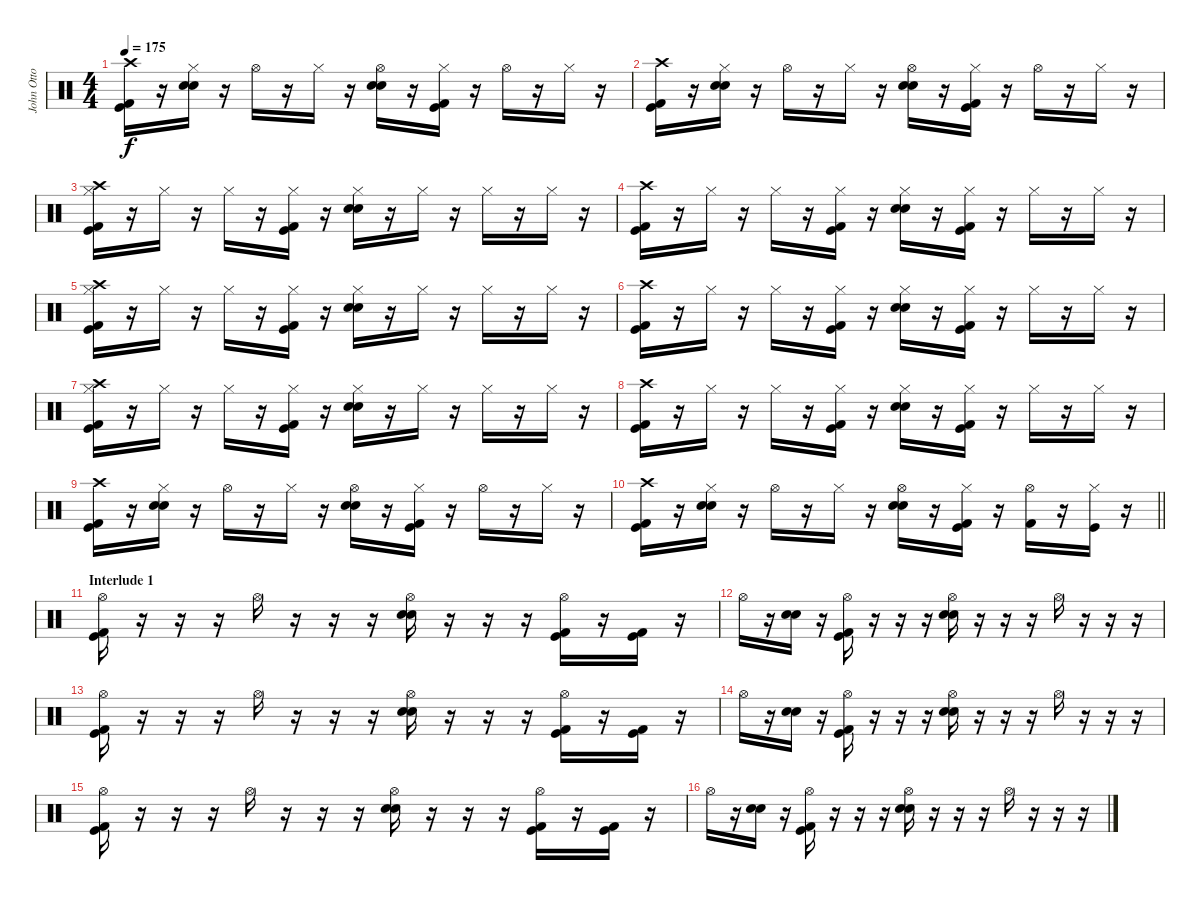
\track ("John Otto" "John Otto") {instrument percussion}
\staff {score}
\articulation defaults
\ts (4 4)
\tempo 175
\clef neutral
\ks c
("Crash high (hit)" "Kick (hit) 2" "Kick (hit)").16{dy f} r.16 ("Hi-Hat (closed)" "Electric Snare (hit)" "Snare (hit) 2").16 r.16 "Hi-Hat (open)".16 r.16 "Hi-Hat (closed)".16 r.16 ("Hi-Hat (open)" "Electric Snare (hit)" "Snare (hit) 2").16 r.16 ("Hi-Hat (closed)" "Kick (hit) 2" "Kick (hit)").16 r.16 "Hi-Hat (open)".16 r.16 "Hi-Hat (closed)".16 r.16 |
("Crash high (hit)" "Kick (hit) 2" "Kick (hit)").16 r.16 ("Hi-Hat (closed)" "Electric Snare (hit)" "Snare (hit) 2").16 r.16 "Hi-Hat (open)".16 r.16 "Hi-Hat (closed)".16 r.16 ("Hi-Hat (open)" "Electric Snare (hit)" "Snare (hit) 2").16 r.16 ("Hi-Hat (closed)" "Kick (hit) 2" "Kick (hit)").16 r.16 "Hi-Hat (open)".16 r.16 "Hi-Hat (closed)".16 r.16 |
("Crash high (hit)" "Hi-Hat (closed)" "Kick (hit) 2" "Kick (hit)").16 r.16 "Hi-Hat (closed)".16 r.16 "Hi-Hat (closed)".16 r.16 ("Hi-Hat (closed)" "Kick (hit) 2" "Kick (hit)").16 r.16 ("Hi-Hat (closed)" "Electric Snare (hit)" "Snare (hit) 2").16 r.16 "Hi-Hat (closed)".16 r.16 "Hi-Hat (closed)".16 r.16 "Hi-Hat (closed)".16 r.16 |
("Crash high (hit)" "Kick (hit) 2" "Kick (hit)").16 r.16 "Hi-Hat (closed)".16 r.16 "Hi-Hat (closed)".16 r.16 ("Hi-Hat (closed)" "Kick (hit) 2" "Kick (hit)").16 r.16 ("Hi-Hat (closed)" "Electric Snare (hit)" "Snare (hit) 2").16 r.16 ("Hi-Hat (closed)" "Kick (hit) 2" "Kick (hit)").16 r.16 "Hi-Hat (closed)".16 r.16 "Hi-Hat (closed)".16 r.16 |
("Crash high (hit)" "Hi-Hat (closed)" "Kick (hit) 2" "Kick (hit)").16 r.16 "Hi-Hat (closed)".16 r.16 "Hi-Hat (closed)".16 r.16 ("Hi-Hat (closed)" "Kick (hit) 2" "Kick (hit)").16 r.16 ("Hi-Hat (closed)" "Electric Snare (hit)" "Snare (hit) 2").16 r.16 "Hi-Hat (closed)".16 r.16 "Hi-Hat (closed)".16 r.16 "Hi-Hat (closed)".16 r.16 |
("Crash high (hit)" "Kick (hit) 2" "Kick (hit)").16 r.16 "Hi-Hat (closed)".16 r.16 "Hi-Hat (closed)".16 r.16 ("Hi-Hat (closed)" "Kick (hit) 2" "Kick (hit)").16 r.16 ("Hi-Hat (closed)" "Electric Snare (hit)" "Snare (hit) 2").16 r.16 ("Hi-Hat (closed)" "Kick (hit) 2" "Kick (hit)").16 r.16 "Hi-Hat (closed)".16 r.16 "Hi-Hat (closed)".16 r.16 |
("Crash high (hit)" "Hi-Hat (closed)" "Kick (hit) 2" "Kick (hit)").16 r.16 "Hi-Hat (closed)".16 r.16 "Hi-Hat (closed)".16 r.16 ("Hi-Hat (closed)" "Kick (hit) 2" "Kick (hit)").16 r.16 ("Hi-Hat (closed)" "Electric Snare (hit)" "Snare (hit) 2").16 r.16 "Hi-Hat (closed)".16 r.16 "Hi-Hat (closed)".16 r.16 "Hi-Hat (closed)".16 r.16 |
("Crash high (hit)" "Kick (hit) 2" "Kick (hit)").16 r.16 "Hi-Hat (closed)".16 r.16 "Hi-Hat (closed)".16 r.16 ("Hi-Hat (closed)" "Kick (hit) 2" "Kick (hit)").16 r.16 ("Hi-Hat (closed)" "Electric Snare (hit)" "Snare (hit) 2").16 r.16 ("Hi-Hat (closed)" "Kick (hit) 2" "Kick (hit)").16 r.16 "Hi-Hat (closed)".16 r.16 "Hi-Hat (closed)".16 r.16 |
("Crash high (hit)" "Kick (hit) 2" "Kick (hit)").16 r.16 ("Hi-Hat (closed)" "Electric Snare (hit)" "Snare (hit) 2").16 r.16 "Hi-Hat (open)".16 r.16 "Hi-Hat (closed)".16 r.16 ("Hi-Hat (open)" "Electric Snare (hit)" "Snare (hit) 2").16 r.16 ("Hi-Hat (closed)" "Kick (hit) 2" "Kick (hit)").16 r.16 "Hi-Hat (open)".16 r.16 "Hi-Hat (closed)".16 r.16 |
\barLineRight lightlight
("Crash high (hit)" "Kick (hit) 2" "Kick (hit)").16 r.16 ("Hi-Hat (closed)" "Electric Snare (hit)" "Snare (hit) 2").16 r.16 "Hi-Hat (open)".16 r.16 "Hi-Hat (closed)".16 r.16 ("Hi-Hat (open)" "Electric Snare (hit)" "Snare (hit) 2").16 r.16 ("Hi-Hat (closed)" "Kick (hit) 2" "Kick (hit)").16 r.16 ("Hi-Hat (open)" "Kick (hit) 2").16 r.16 ("Hi-Hat (closed)" "Kick (hit)").16 r.16 |
\section ("" "Interlude 1")
("Hi-Hat (open)" "Kick (hit) 2" "Kick (hit)").16 r.16 r.16 r.16 "Hi-Hat (open)".16 r.16 r.16 r.16 ("Hi-Hat (open)" "Electric Snare (hit)" "Snare (hit) 2").16 r.16 r.16 r.16 ("Hi-Hat (open)" "Kick (hit) 2" "Kick (hit)").16 r.16 ("Kick (hit) 2" "Kick (hit)").16 r.16 |
"Hi-Hat (open)".16 r.16 ("Electric Snare (hit)" "Snare (hit) 2").16 r.16 ("Hi-Hat (open)" "Kick (hit) 2" "Kick (hit)").16 r.16 r.16 r.16 ("Hi-Hat (open)" "Electric Snare (hit)" "Snare (hit) 2").16 r.16 r.16 r.16 "Hi-Hat (open)".16 r.16 r.16 r.16 |
("Hi-Hat (open)" "Kick (hit) 2" "Kick (hit)").16 r.16 r.16 r.16 "Hi-Hat (open)".16 r.16 r.16 r.16 ("Hi-Hat (open)" "Electric Snare (hit)" "Snare (hit) 2").16 r.16 r.16 r.16 ("Hi-Hat (open)" "Kick (hit) 2" "Kick (hit)").16 r.16 ("Kick (hit) 2" "Kick (hit)").16 r.16 |
"Hi-Hat (open)".16 r.16 ("Electric Snare (hit)" "Snare (hit) 2").16 r.16 ("Hi-Hat (open)" "Kick (hit) 2" "Kick (hit)").16 r.16 r.16 r.16 ("Hi-Hat (open)" "Electric Snare (hit)" "Snare (hit) 2").16 r.16 r.16 r.16 "Hi-Hat (open)".16 r.16 r.16 r.16 |
("Hi-Hat (open)" "Kick (hit) 2" "Kick (hit)").16 r.16 r.16 r.16 "Hi-Hat (open)".16 r.16 r.16 r.16 ("Hi-Hat (open)" "Electric Snare (hit)" "Snare (hit) 2").16 r.16 r.16 r.16 ("Hi-Hat (open)" "Kick (hit) 2" "Kick (hit)").16 r.16 ("Kick (hit) 2" "Kick (hit)").16 r.16 |
"Hi-Hat (open)".16 r.16 ("Electric Snare (hit)" "Snare (hit) 2").16 r.16 ("Hi-Hat (open)" "Kick (hit) 2" "Kick (hit)").16 r.16 r.16 r.16 ("Hi-Hat (open)" "Electric Snare (hit)" "Snare (hit) 2").16 r.16 r.16 r.16 "Hi-Hat (open)".16 r.16 r.16 r.16
